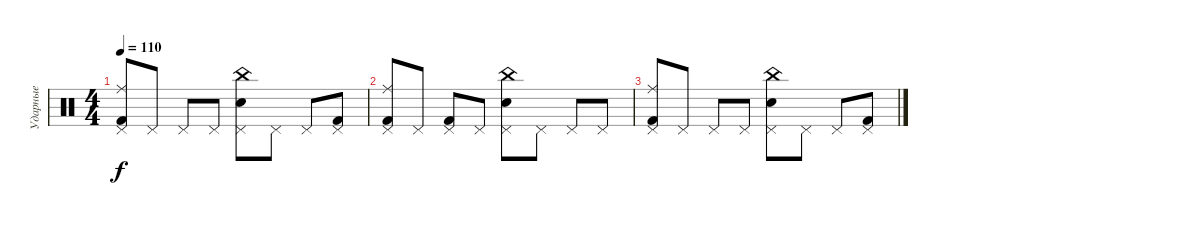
\track ("Ударные" "Ударные") {instrument percussion}
\staff {score}
\articulation defaults
\ts (4 4)
\tempo 110
\clef neutral
\ks c
("Pedal Hi-Hat (hit)" "Ride (middle)" "Kick (hit) 2").8{dy f} "Pedal Hi-Hat (hit)".8 "Pedal Hi-Hat (hit)".8 "Pedal Hi-Hat (hit)".8 ("Pedal Hi-Hat (hit)" "Electric Snare (hit)" "China (hit)").8 "Pedal Hi-Hat (hit)".8 "Pedal Hi-Hat (hit)".8 ("Pedal Hi-Hat (hit)" "Kick (hit) 2").8 |
("Pedal Hi-Hat (hit)" "Ride (middle)" "Kick (hit) 2").8 "Pedal Hi-Hat (hit)".8 ("Pedal Hi-Hat (hit)" "Kick (hit) 2").8 "Pedal Hi-Hat (hit)".8 ("Pedal Hi-Hat (hit)" "Electric Snare (hit)" "China (hit)").8 "Pedal Hi-Hat (hit)".8 "Pedal Hi-Hat (hit)".8 "Pedal Hi-Hat (hit)".8 |
("Pedal Hi-Hat (hit)" "Ride (middle)" "Kick (hit) 2").8 "Pedal Hi-Hat (hit)".8 "Pedal Hi-Hat (hit)".8 "Pedal Hi-Hat (hit)".8 ("Pedal Hi-Hat (hit)" "Electric Snare (hit)" "China (hit)").8 "Pedal Hi-Hat (hit)".8 "Pedal Hi-Hat (hit)".8 ("Pedal Hi-Hat (hit)" "Kick (hit) 2").8
